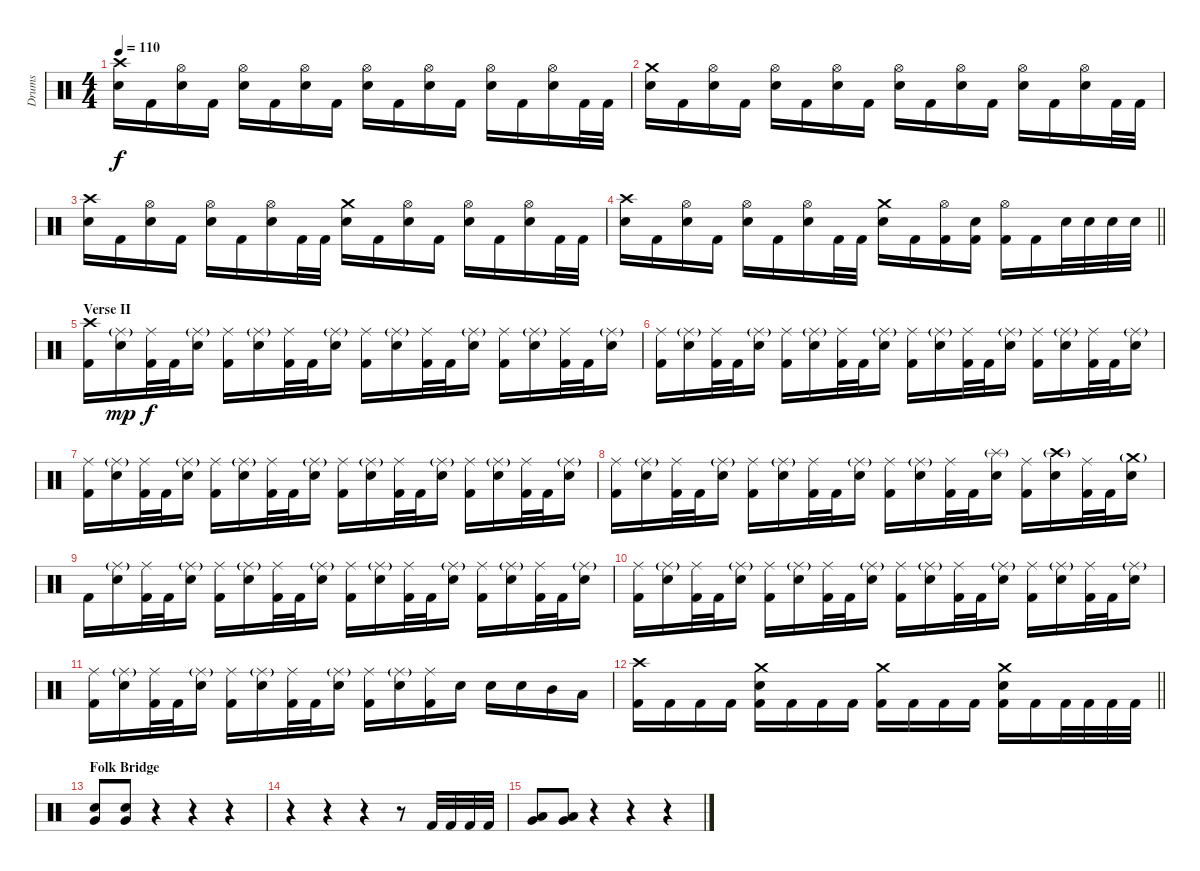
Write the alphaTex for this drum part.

\track ("Drums" "Drums") {instrument percussion}
\staff {score}
\articulation defaults
\ts (4 4)
\tempo 110
\clef neutral
\ks c
("Crash high (hit)" "Electric Snare (hit)").16{dy f} "Kick (hit) 2".16 ("Hi-Hat (open)" "Electric Snare (hit)").16 "Kick (hit) 2".16 ("Hi-Hat (open)" "Electric Snare (hit)").16 "Kick (hit) 2".16 ("Hi-Hat (open)" "Electric Snare (hit)").16 "Kick (hit) 2".16 ("Hi-Hat (open)" "Electric Snare (hit)").16 "Kick (hit) 2".16 ("Hi-Hat (open)" "Electric Snare (hit)").16 "Kick (hit) 2".16 ("Hi-Hat (open)" "Electric Snare (hit)").16 "Kick (hit) 2".16 ("Hi-Hat (open)" "Electric Snare (hit)").16 "Kick (hit) 2".32 "Kick (hit) 2".32 |
("Crash medium (hit)" "Electric Snare (hit)").16 "Kick (hit) 2".16 ("Hi-Hat (open)" "Electric Snare (hit)").16 "Kick (hit) 2".16 ("Hi-Hat (open)" "Electric Snare (hit)").16 "Kick (hit) 2".16 ("Hi-Hat (open)" "Electric Snare (hit)").16 "Kick (hit) 2".16 ("Hi-Hat (open)" "Electric Snare (hit)").16 "Kick (hit) 2".16 ("Hi-Hat (open)" "Electric Snare (hit)").16 "Kick (hit) 2".16 ("Hi-Hat (open)" "Electric Snare (hit)").16 "Kick (hit) 2".16 ("Hi-Hat (open)" "Electric Snare (hit)").16 "Kick (hit) 2".32 "Kick (hit) 2".32 |
("Crash high (hit)" "Electric Snare (hit)").16 "Kick (hit) 2".16 ("Hi-Hat (open)" "Electric Snare (hit)").16 "Kick (hit) 2".16 ("Hi-Hat (open)" "Electric Snare (hit)").16 "Kick (hit) 2".16 ("Hi-Hat (open)" "Electric Snare (hit)").16 "Kick (hit) 2".32 "Kick (hit) 2".32 ("Crash medium (hit)" "Electric Snare (hit)").16 "Kick (hit) 2".16 ("Hi-Hat (open)" "Electric Snare (hit)").16 "Kick (hit) 2".16 ("Hi-Hat (open)" "Electric Snare (hit)").16 "Kick (hit) 2".16 ("Hi-Hat (open)" "Electric Snare (hit)").16 "Kick (hit) 2".32 "Kick (hit) 2".32 |
\barLineRight lightlight
("Crash high (hit)" "Electric Snare (hit)").16 "Kick (hit) 2".16 ("Hi-Hat (open)" "Electric Snare (hit)").16 "Kick (hit) 2".16 ("Hi-Hat (open)" "Electric Snare (hit)").16 "Kick (hit) 2".16 ("Hi-Hat (open)" "Electric Snare (hit)").16 "Kick (hit) 2".32 "Kick (hit) 2".32 ("Crash medium (hit)" "Electric Snare (hit)").16 "Kick (hit) 2".16 ("Hi-Hat (open)" "Kick (hit) 2").16 ("Electric Snare (hit)" "Kick (hit) 2").16 ("Hi-Hat (open)" "Kick (hit) 2").16 "Kick (hit) 2".16 "Electric Snare (hit)".32 "Electric Snare (hit)".32 "Electric Snare (hit)".32 "Electric Snare (hit)".32 |
\section ("" "Verse II")
("Crash high (hit)" "Kick (hit) 2").16 ("Ride (middle)"{g} "Electric Snare (hit)").16{dy mp} ("Ride (middle)" "Kick (hit) 2").32{dy f} "Kick (hit) 2".32 ("Ride (middle)"{g} "Electric Snare (hit)").16 ("Ride (middle)" "Kick (hit) 2").16 ("Ride (middle)"{g} "Electric Snare (hit)").16 ("Ride (middle)" "Kick (hit) 2").32 "Kick (hit) 2".32 ("Ride (middle)"{g} "Electric Snare (hit)").16 ("Ride (middle)" "Kick (hit) 2").16 ("Ride (middle)"{g} "Electric Snare (hit)").16 ("Ride (middle)" "Kick (hit) 2").32 "Kick (hit) 2".32 ("Ride (middle)"{g} "Electric Snare (hit)").16 ("Ride (middle)" "Kick (hit) 2").16 ("Ride (middle)"{g} "Electric Snare (hit)").16 ("Ride (middle)" "Kick (hit) 2").32 "Kick (hit) 2".32 ("Ride (middle)"{g} "Electric Snare (hit)").16 |
("Ride (middle)" "Kick (hit) 2").16 ("Ride (middle)"{g} "Electric Snare (hit)").16 ("Ride (middle)" "Kick (hit) 2").32 "Kick (hit) 2".32 ("Ride (middle)"{g} "Electric Snare (hit)").16 ("Ride (middle)" "Kick (hit) 2").16 ("Ride (middle)"{g} "Electric Snare (hit)").16 ("Ride (middle)" "Kick (hit) 2").32 "Kick (hit) 2".32 ("Ride (middle)"{g} "Electric Snare (hit)").16 ("Ride (middle)" "Kick (hit) 2").16 ("Ride (middle)"{g} "Electric Snare (hit)").16 ("Ride (middle)" "Kick (hit) 2").32 "Kick (hit) 2".32 ("Ride (middle)"{g} "Electric Snare (hit)").16 ("Ride (middle)" "Kick (hit) 2").16 ("Ride (middle)"{g} "Electric Snare (hit)").16 ("Ride (middle)" "Kick (hit) 2").32 "Kick (hit) 2".32 ("Ride (middle)"{g} "Electric Snare (hit)").16 |
("Ride (middle)" "Kick (hit) 2").16 ("Ride (middle)"{g} "Electric Snare (hit)").16 ("Ride (middle)" "Kick (hit) 2").32 "Kick (hit) 2".32 ("Ride (middle)"{g} "Electric Snare (hit)").16 ("Ride (middle)" "Kick (hit) 2").16 ("Ride (middle)"{g} "Electric Snare (hit)").16 ("Ride (middle)" "Kick (hit) 2").32 "Kick (hit) 2".32 ("Ride (middle)"{g} "Electric Snare (hit)").16 ("Ride (middle)" "Kick (hit) 2").16 ("Ride (middle)"{g} "Electric Snare (hit)").16 ("Ride (middle)" "Kick (hit) 2").32 "Kick (hit) 2".32 ("Ride (middle)"{g} "Electric Snare (hit)").16 ("Ride (middle)" "Kick (hit) 2").16 ("Ride (middle)"{g} "Electric Snare (hit)").16 ("Ride (middle)" "Kick (hit) 2").32 "Kick (hit) 2".32 ("Ride (middle)"{g} "Electric Snare (hit)").16 |
("Ride (middle)" "Kick (hit) 2").16 ("Ride (middle)"{g} "Electric Snare (hit)").16 ("Ride (middle)" "Kick (hit) 2").32 "Kick (hit) 2".32 ("Ride (middle)"{g} "Electric Snare (hit)").16 ("Ride (middle)" "Kick (hit) 2").16 ("Ride (middle)"{g} "Electric Snare (hit)").16 ("Ride (middle)" "Kick (hit) 2").32 "Kick (hit) 2".32 ("Ride (middle)"{g} "Electric Snare (hit)").16 ("Ride (middle)" "Kick (hit) 2").16 ("Ride (middle)"{g} "Electric Snare (hit)").16 ("Ride (middle)" "Kick (hit) 2").32 "Kick (hit) 2".32 ("Splash (hit)"{g} "Electric Snare (hit)").16 ("Ride (middle)" "Kick (hit) 2").16 ("Crash high (hit)"{g} "Electric Snare (hit)").16 ("Ride (middle)" "Kick (hit) 2").32 "Kick (hit) 2".32 ("Crash medium (hit)"{g} "Electric Snare (hit)").16 |
"Kick (hit) 2".16 ("Ride (middle)"{g} "Electric Snare (hit)").16 ("Ride (middle)" "Kick (hit) 2").32 "Kick (hit) 2".32 ("Ride (middle)"{g} "Electric Snare (hit)").16 ("Ride (middle)" "Kick (hit) 2").16 ("Ride (middle)"{g} "Electric Snare (hit)").16 ("Ride (middle)" "Kick (hit) 2").32 "Kick (hit) 2".32 ("Ride (middle)"{g} "Electric Snare (hit)").16 ("Ride (middle)" "Kick (hit) 2").16 ("Ride (middle)"{g} "Electric Snare (hit)").16 ("Ride (middle)" "Kick (hit) 2").32 "Kick (hit) 2".32 ("Ride (middle)"{g} "Electric Snare (hit)").16 ("Ride (middle)" "Kick (hit) 2").16 ("Ride (middle)"{g} "Electric Snare (hit)").16 ("Ride (middle)" "Kick (hit) 2").32 "Kick (hit) 2".32 ("Ride (middle)"{g} "Electric Snare (hit)").16 |
("Ride (middle)" "Kick (hit) 2").16 ("Ride (middle)"{g} "Electric Snare (hit)").16 ("Ride (middle)" "Kick (hit) 2").32 "Kick (hit) 2".32 ("Ride (middle)"{g} "Electric Snare (hit)").16 ("Ride (middle)" "Kick (hit) 2").16 ("Ride (middle)"{g} "Electric Snare (hit)").16 ("Ride (middle)" "Kick (hit) 2").32 "Kick (hit) 2".32 ("Ride (middle)"{g} "Electric Snare (hit)").16 ("Ride (middle)" "Kick (hit) 2").16 ("Ride (middle)"{g} "Electric Snare (hit)").16 ("Ride (middle)" "Kick (hit) 2").32 "Kick (hit) 2".32 ("Ride (middle)"{g} "Electric Snare (hit)").16 ("Ride (middle)" "Kick (hit) 2").16 ("Ride (middle)"{g} "Electric Snare (hit)").16 ("Ride (middle)" "Kick (hit) 2").32 "Kick (hit) 2".32 ("Ride (middle)"{g} "Electric Snare (hit)").16 |
("Ride (middle)" "Kick (hit) 2").16 ("Ride (middle)"{g} "Electric Snare (hit)").16 ("Ride (middle)" "Kick (hit) 2").32 "Kick (hit) 2".32 ("Ride (middle)"{g} "Electric Snare (hit)").16 ("Ride (middle)" "Kick (hit) 2").16 ("Ride (middle)"{g} "Electric Snare (hit)").16 ("Ride (middle)" "Kick (hit) 2").32 "Kick (hit) 2".32 ("Ride (middle)"{g} "Electric Snare (hit)").16 ("Ride (middle)" "Kick (hit) 2").16 ("Ride (middle)"{g} "Electric Snare (hit)").16 ("Ride (middle)" "Kick (hit) 2").16 "Electric Snare (hit)".16 "Electric Snare (hit)".16 "Electric Snare (hit)".16 "Mid Tom (hit)".16 "Low Tom (hit)".16 |
\barLineRight lightlight
("Crash high (hit)" "Kick (hit) 2").16 "Kick (hit) 2".16 "Kick (hit) 2".16 "Kick (hit) 2".16 ("Crash medium (hit)" "Electric Snare (hit)" "Kick (hit) 2").16 "Kick (hit) 2".16 "Kick (hit) 2".16 "Kick (hit) 2".16 ("Crash medium (hit)" "Kick (hit) 2").16 "Kick (hit) 2".16 "Kick (hit) 2".16 "Kick (hit) 2".16 ("Crash medium (hit)" "Electric Snare (hit)" "Kick (hit) 2").16 "Kick (hit) 2".16 "Kick (hit) 2".32 "Kick (hit) 2".32 "Kick (hit) 2".32 "Kick (hit) 2".32 |
\section ("" "Folk Bridge")
("Very Low Tom (hit)" "Electric Snare (hit)").8 ("Very Low Tom (hit)" "Electric Snare (hit)").8 r.4 r.4 r.4 |
r.4 r.4 r.4 r.8 "Kick (hit) 2".32 "Kick (hit) 2".32 "Kick (hit) 2".32 "Kick (hit) 2".32 |
("Very Low Tom (hit)" "Low Floor Tom (hit)").8 ("Very Low Tom (hit)" "Low Floor Tom (hit)").8 r.4 r.4 r.4
